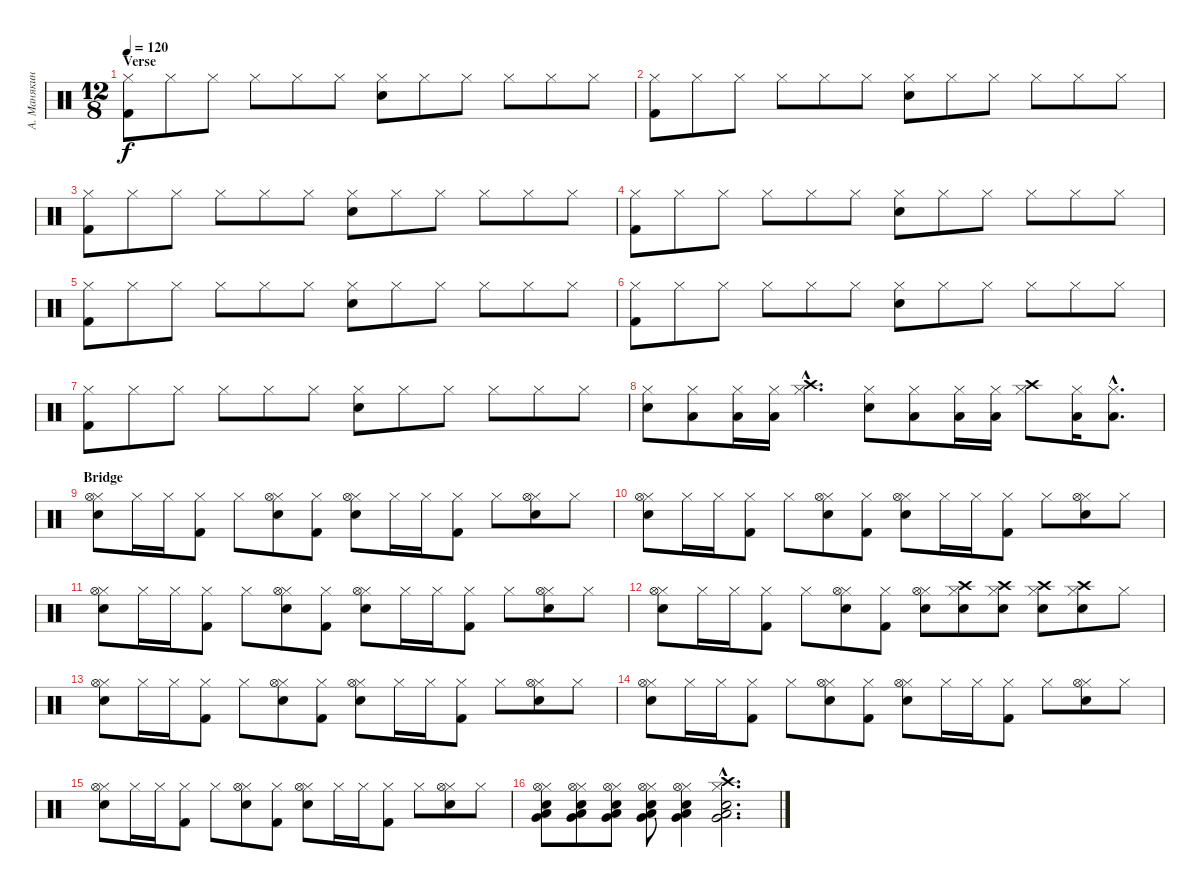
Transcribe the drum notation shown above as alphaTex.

\track ("А. Манякин" "А. Манякин") {instrument percussion}
\staff {score}
\articulation defaults
\ts (12 8)
\section ("" "Verse")
\tempo 120
\clef neutral
\ks c
("Hi-Hat (closed)" "Kick (hit) 2").8{dy f} "Hi-Hat (closed)".8 "Hi-Hat (closed)".8 "Hi-Hat (closed)".8 "Hi-Hat (closed)".8 "Hi-Hat (closed)".8 ("Hi-Hat (closed)" "Snare (hit) 2").8 "Hi-Hat (closed)".8 "Hi-Hat (closed)".8 "Hi-Hat (closed)".8 "Hi-Hat (closed)".8 "Hi-Hat (closed)".8 |
("Hi-Hat (closed)" "Kick (hit) 2").8 "Hi-Hat (closed)".8 "Hi-Hat (closed)".8 "Hi-Hat (closed)".8 "Hi-Hat (closed)".8 "Hi-Hat (closed)".8 ("Hi-Hat (closed)" "Snare (hit) 2").8 "Hi-Hat (closed)".8 "Hi-Hat (closed)".8 "Hi-Hat (closed)".8 "Hi-Hat (closed)".8 "Hi-Hat (closed)".8 |
("Hi-Hat (closed)" "Kick (hit) 2").8 "Hi-Hat (closed)".8 "Hi-Hat (closed)".8 "Hi-Hat (closed)".8 "Hi-Hat (closed)".8 "Hi-Hat (closed)".8 ("Hi-Hat (closed)" "Snare (hit) 2").8 "Hi-Hat (closed)".8 "Hi-Hat (closed)".8 "Hi-Hat (closed)".8 "Hi-Hat (closed)".8 "Hi-Hat (closed)".8 |
("Hi-Hat (closed)" "Kick (hit) 2").8 "Hi-Hat (closed)".8 "Hi-Hat (closed)".8 "Hi-Hat (closed)".8 "Hi-Hat (closed)".8 "Hi-Hat (closed)".8 ("Hi-Hat (closed)" "Snare (hit) 2").8 "Hi-Hat (closed)".8 "Hi-Hat (closed)".8 "Hi-Hat (closed)".8 "Hi-Hat (closed)".8 "Hi-Hat (closed)".8 |
("Hi-Hat (closed)" "Kick (hit) 2").8 "Hi-Hat (closed)".8 "Hi-Hat (closed)".8 "Hi-Hat (closed)".8 "Hi-Hat (closed)".8 "Hi-Hat (closed)".8 ("Hi-Hat (closed)" "Snare (hit) 2").8 "Hi-Hat (closed)".8 "Hi-Hat (closed)".8 "Hi-Hat (closed)".8 "Hi-Hat (closed)".8 "Hi-Hat (closed)".8 |
("Hi-Hat (closed)" "Kick (hit) 2").8 "Hi-Hat (closed)".8 "Hi-Hat (closed)".8 "Hi-Hat (closed)".8 "Hi-Hat (closed)".8 "Hi-Hat (closed)".8 ("Hi-Hat (closed)" "Snare (hit) 2").8 "Hi-Hat (closed)".8 "Hi-Hat (closed)".8 "Hi-Hat (closed)".8 "Hi-Hat (closed)".8 "Hi-Hat (closed)".8 |
("Hi-Hat (closed)" "Kick (hit) 2").8 "Hi-Hat (closed)".8 "Hi-Hat (closed)".8 "Hi-Hat (closed)".8 "Hi-Hat (closed)".8 "Hi-Hat (closed)".8 ("Hi-Hat (closed)" "Snare (hit) 2").8 "Hi-Hat (closed)".8 "Hi-Hat (closed)".8 "Hi-Hat (closed)".8 "Hi-Hat (closed)".8 "Hi-Hat (closed)".8 |
("Hi-Hat (closed)" "Snare (hit) 2").8 ("Hi-Hat (closed)" "Low Tom (hit)").8 ("Hi-Hat (closed)" "Low Tom (hit)").16 ("Hi-Hat (closed)" "Low Tom (hit)").16 ("Hi-Hat (closed)"{hac} "Crash high (hit)"{hac}).4{d} ("Hi-Hat (closed)" "Snare (hit) 2").8 ("Hi-Hat (closed)" "Low Tom (hit)").8 ("Hi-Hat (closed)" "Low Tom (hit)").16 ("Hi-Hat (closed)" "Low Tom (hit)").16 ("Hi-Hat (closed)" "Crash high (hit)").8 ("Hi-Hat (closed)" "Low Tom (hit)").16 ("Hi-Hat (closed)"{hac} "Low Tom (hit)"{hac}).8{d} |
\section ("" "Bridge")
("Hi-Hat (closed)" "Snare (hit) 2" "Hi-Hat (open)").8 "Hi-Hat (closed)".16 "Hi-Hat (closed)".16 ("Hi-Hat (closed)" "Kick (hit) 2").8 "Hi-Hat (closed)".8 ("Hi-Hat (closed)" "Snare (hit) 2" "Hi-Hat (open)").8 ("Hi-Hat (closed)" "Kick (hit) 2").8 ("Hi-Hat (closed)" "Snare (hit) 2" "Hi-Hat (open)").8 "Hi-Hat (closed)".16 "Hi-Hat (closed)".16 ("Hi-Hat (closed)" "Kick (hit) 2").8 "Hi-Hat (closed)".8 ("Hi-Hat (closed)" "Snare (hit) 2" "Hi-Hat (open)").8 "Hi-Hat (closed)".8 |
("Hi-Hat (closed)" "Snare (hit) 2" "Hi-Hat (open)").8 "Hi-Hat (closed)".16 "Hi-Hat (closed)".16 ("Hi-Hat (closed)" "Kick (hit) 2").8 "Hi-Hat (closed)".8 ("Hi-Hat (closed)" "Snare (hit) 2" "Hi-Hat (open)").8 ("Hi-Hat (closed)" "Kick (hit) 2").8 ("Hi-Hat (closed)" "Snare (hit) 2" "Hi-Hat (open)").8 "Hi-Hat (closed)".16 "Hi-Hat (closed)".16 ("Hi-Hat (closed)" "Kick (hit) 2").8 "Hi-Hat (closed)".8 ("Hi-Hat (closed)" "Snare (hit) 2" "Hi-Hat (open)").8 "Hi-Hat (closed)".8 |
("Hi-Hat (closed)" "Snare (hit) 2" "Hi-Hat (open)").8 "Hi-Hat (closed)".16 "Hi-Hat (closed)".16 ("Hi-Hat (closed)" "Kick (hit) 2").8 "Hi-Hat (closed)".8 ("Hi-Hat (closed)" "Snare (hit) 2" "Hi-Hat (open)").8 ("Hi-Hat (closed)" "Kick (hit) 2").8 ("Hi-Hat (closed)" "Snare (hit) 2" "Hi-Hat (open)").8 "Hi-Hat (closed)".16 "Hi-Hat (closed)".16 ("Hi-Hat (closed)" "Kick (hit) 2").8 "Hi-Hat (closed)".8 ("Hi-Hat (closed)" "Snare (hit) 2" "Hi-Hat (open)").8 "Hi-Hat (closed)".8 |
("Hi-Hat (closed)" "Snare (hit) 2" "Hi-Hat (open)").8 "Hi-Hat (closed)".16 "Hi-Hat (closed)".16 ("Hi-Hat (closed)" "Kick (hit) 2").8 "Hi-Hat (closed)".8 ("Hi-Hat (closed)" "Snare (hit) 2" "Hi-Hat (open)").8 ("Hi-Hat (closed)" "Kick (hit) 2").8 ("Hi-Hat (closed)" "Snare (hit) 2" "Hi-Hat (open)").8 ("Hi-Hat (closed)" "Snare (hit) 2" "Crash high (hit)").8 ("Hi-Hat (closed)" "Snare (hit) 2" "Crash high (hit)").8 ("Hi-Hat (closed)" "Snare (hit) 2" "Crash high (hit)").8 ("Hi-Hat (closed)" "Snare (hit) 2" "Crash high (hit)").8 "Hi-Hat (closed)".8 |
("Hi-Hat (closed)" "Snare (hit) 2" "Hi-Hat (open)").8 "Hi-Hat (closed)".16 "Hi-Hat (closed)".16 ("Hi-Hat (closed)" "Kick (hit) 2").8 "Hi-Hat (closed)".8 ("Hi-Hat (closed)" "Snare (hit) 2" "Hi-Hat (open)").8 ("Hi-Hat (closed)" "Kick (hit) 2").8 ("Hi-Hat (closed)" "Snare (hit) 2" "Hi-Hat (open)").8 "Hi-Hat (closed)".16 "Hi-Hat (closed)".16 ("Hi-Hat (closed)" "Kick (hit) 2").8 "Hi-Hat (closed)".8 ("Hi-Hat (closed)" "Snare (hit) 2" "Hi-Hat (open)").8 "Hi-Hat (closed)".8 |
("Hi-Hat (closed)" "Snare (hit) 2" "Hi-Hat (open)").8 "Hi-Hat (closed)".16 "Hi-Hat (closed)".16 ("Hi-Hat (closed)" "Kick (hit) 2").8 "Hi-Hat (closed)".8 ("Hi-Hat (closed)" "Snare (hit) 2" "Hi-Hat (open)").8 ("Hi-Hat (closed)" "Kick (hit) 2").8 ("Hi-Hat (closed)" "Snare (hit) 2" "Hi-Hat (open)").8 "Hi-Hat (closed)".16 "Hi-Hat (closed)".16 ("Hi-Hat (closed)" "Kick (hit) 2").8 "Hi-Hat (closed)".8 ("Hi-Hat (closed)" "Snare (hit) 2" "Hi-Hat (open)").8 "Hi-Hat (closed)".8 |
("Hi-Hat (closed)" "Snare (hit) 2" "Hi-Hat (open)").8 "Hi-Hat (closed)".16 "Hi-Hat (closed)".16 ("Hi-Hat (closed)" "Kick (hit) 2").8 "Hi-Hat (closed)".8 ("Hi-Hat (closed)" "Snare (hit) 2" "Hi-Hat (open)").8 ("Hi-Hat (closed)" "Kick (hit) 2").8 ("Hi-Hat (closed)" "Snare (hit) 2" "Hi-Hat (open)").8 "Hi-Hat (closed)".16 "Hi-Hat (closed)".16 ("Hi-Hat (closed)" "Kick (hit) 2").8 "Hi-Hat (closed)".8 ("Hi-Hat (closed)" "Snare (hit) 2" "Hi-Hat (open)").8 "Hi-Hat (closed)".8 |
("Hi-Hat (closed)" "Snare (hit) 2" "Low Tom (hit)" "Very Low Tom (hit)" "Hi-Hat (open)").8 ("Hi-Hat (closed)" "Snare (hit) 2" "Low Tom (hit)" "Very Low Tom (hit)" "Hi-Hat (open)").8 ("Hi-Hat (closed)" "Snare (hit) 2" "Very Low Tom (hit)" "Low Tom (hit)" "Hi-Hat (open)").8 ("Hi-Hat (closed)" "Snare (hit) 2" "Very Low Tom (hit)" "Low Tom (hit)" "Hi-Hat (open)").8 ("Hi-Hat (closed)" "Snare (hit) 2" "Low Tom (hit)" "Very Low Tom (hit)" "Hi-Hat (open)").4 ("Hi-Hat (closed)"{hac} "Snare (hit) 2"{hac} "Low Tom (hit)"{hac} "Very Low Tom (hit)"{hac} "Crash high (hit)"{hac}).2{d}
